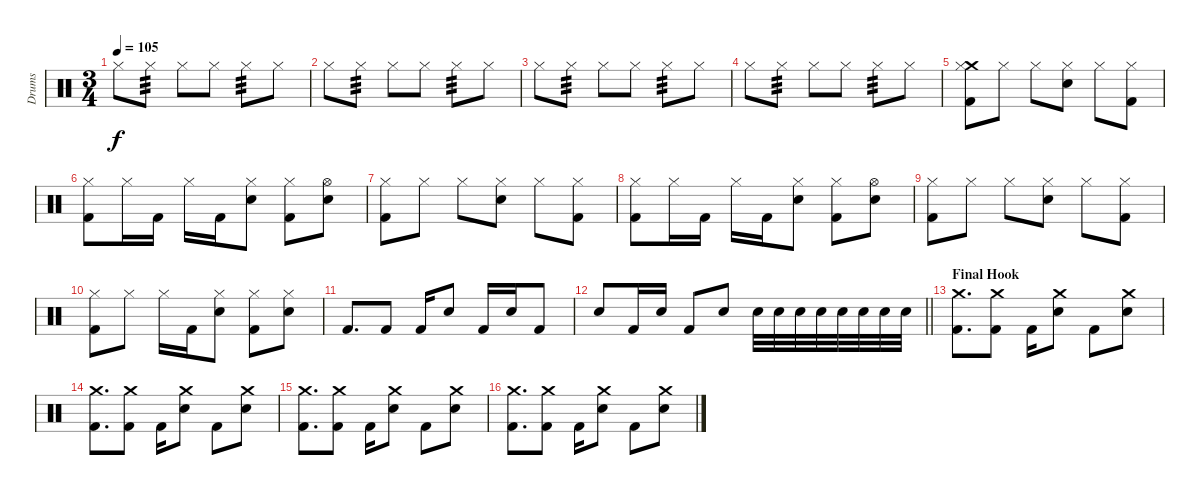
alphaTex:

\track ("Drums" "Drums") {instrument percussion}
\staff {score}
\articulation defaults
\ts (3 4)
\tempo 105
\clef neutral
\ks c "Hi-Hat (closed)".8{dy f} "Hi-Hat (closed)".8{tp 3} "Hi-Hat (closed)".8 "Hi-Hat (closed)".8 "Hi-Hat (closed)".8{tp 3} "Hi-Hat (closed)".8
|
"Hi-Hat (closed)".8 "Hi-Hat (closed)".8{tp 3} "Hi-Hat (closed)".8 "Hi-Hat (closed)".8 "Hi-Hat (closed)".8{tp 3} "Hi-Hat (closed)".8 |
"Hi-Hat (closed)".8 "Hi-Hat (closed)".8{tp 3} "Hi-Hat (closed)".8 "Hi-Hat (closed)".8 "Hi-Hat (closed)".8{tp 3} "Hi-Hat (closed)".8 |
"Hi-Hat (closed)".8 "Hi-Hat (closed)".8{tp 3} "Hi-Hat (closed)".8 "Hi-Hat (closed)".8 "Hi-Hat (closed)".8{tp 3} "Hi-Hat (closed)".8 |
("Crash medium (hit)" "Hi-Hat (closed)" "Kick (hit) 2").8 "Hi-Hat (closed)".8 "Hi-Hat (closed)".8 ("Hi-Hat (closed)" "Electric Snare (hit)").8 "Hi-Hat (closed)".8 ("Hi-Hat (closed)" "Kick (hit) 2").8 |
("Hi-Hat (closed)" "Kick (hit) 2").8 "Hi-Hat (closed)".16 "Kick (hit) 2".16 "Hi-Hat (closed)".16 "Kick (hit) 2".16 ("Hi-Hat (closed)" "Electric Snare (hit)").8 ("Hi-Hat (closed)" "Kick (hit) 2").8 ("Hi-Hat (open)" "Electric Snare (hit)").8 |
("Hi-Hat (closed)" "Kick (hit) 2").8 "Hi-Hat (closed)".8 "Hi-Hat (closed)".8 ("Hi-Hat (closed)" "Electric Snare (hit)").8 "Hi-Hat (closed)".8 ("Hi-Hat (closed)" "Kick (hit) 2").8 |
("Hi-Hat (closed)" "Kick (hit) 2").8 "Hi-Hat (closed)".16 "Kick (hit) 2".16 "Hi-Hat (closed)".16 "Kick (hit) 2".16 ("Hi-Hat (closed)" "Electric Snare (hit)").8 ("Hi-Hat (closed)" "Kick (hit) 2").8 ("Hi-Hat (open)" "Electric Snare (hit)").8 |
("Hi-Hat (closed)" "Kick (hit) 2").8 "Hi-Hat (closed)".8 "Hi-Hat (closed)".8 ("Hi-Hat (closed)" "Electric Snare (hit)").8 "Hi-Hat (closed)".8 ("Hi-Hat (closed)" "Kick (hit) 2").8 |
("Hi-Hat (closed)" "Kick (hit) 2").8 "Hi-Hat (closed)".8 "Hi-Hat (closed)".16 "Kick (hit) 2".16 ("Hi-Hat (closed)" "Electric Snare (hit)").8 ("Hi-Hat (closed)" "Kick (hit) 2").8 ("Hi-Hat (closed)" "Electric Snare (hit)").8 |
"Kick (hit) 2".8{d} "Kick (hit) 2".8 "Kick (hit) 2".16 "Electric Snare (hit)".8 "Kick (hit) 2".16 "Electric Snare (hit)".16 "Kick (hit) 2".8 |
\barLineRight lightlight "Electric Snare (hit)".8 "Kick (hit) 2".16 "Electric Snare (hit)".16 "Kick (hit) 2".8 "Electric Snare (hit)".8 "Electric Snare (hit)".32 "Electric Snare (hit)".32 "Electric Snare (hit)".32 "Electric Snare (hit)".32 "Electric Snare (hit)".32 "Electric Snare (hit)".32 "Electric Snare (hit)".32 "Electric Snare (hit)".32
|
\section ("" "Final Hook")
("Crash medium (hit)" "Kick (hit) 2").8{d} ("Crash medium (hit)" "Kick (hit) 2").8 "Kick (hit) 2".16 ("Crash medium (hit)" "Electric Snare (hit)").8 "Kick (hit) 2".8 ("Crash medium (hit)" "Electric Snare (hit)").8 |
("Crash medium (hit)" "Kick (hit) 2").8{d} ("Crash medium (hit)" "Kick (hit) 2").8 "Kick (hit) 2".16 ("Crash medium (hit)" "Electric Snare (hit)").8 "Kick (hit) 2".8 ("Crash medium (hit)" "Electric Snare (hit)").8 |
("Crash medium (hit)" "Kick (hit) 2").8{d} ("Crash medium (hit)" "Kick (hit) 2").8 "Kick (hit) 2".16 ("Crash medium (hit)" "Electric Snare (hit)").8 "Kick (hit) 2".8 ("Crash medium (hit)" "Electric Snare (hit)").8 |
("Crash medium (hit)" "Kick (hit) 2").8{d} ("Crash medium (hit)" "Kick (hit) 2").8 "Kick (hit) 2".16 ("Crash medium (hit)" "Electric Snare (hit)").8 "Kick (hit) 2".8 ("Crash medium (hit)" "Electric Snare (hit)").8
